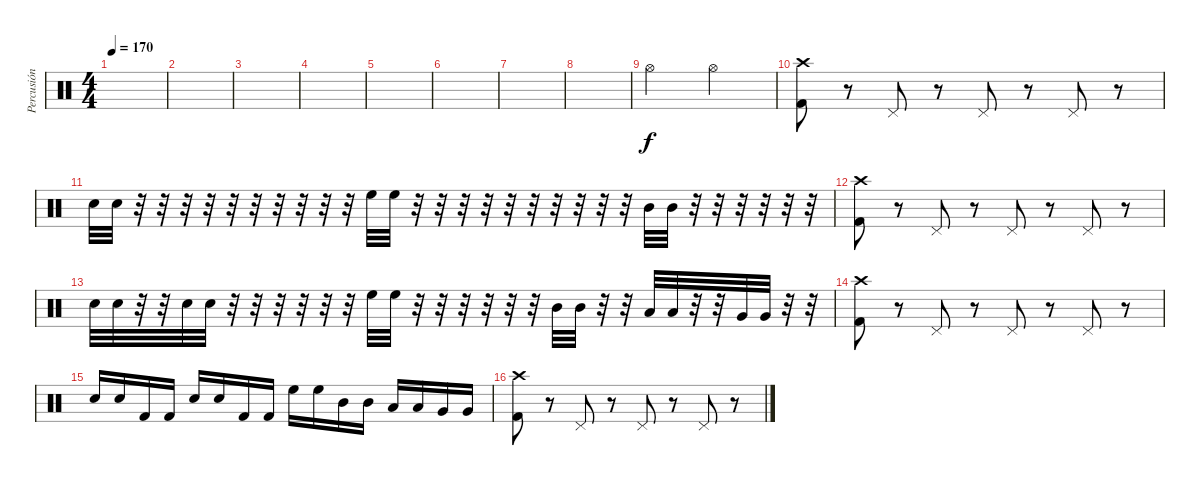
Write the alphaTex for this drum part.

\track ("Percusión" "Percusión") {instrument percussion}
\staff {score}
\articulation defaults
\ts (4 4)
\tempo 170
\clef neutral
\ks c
|
|
|
|
|
|
|
|
"Hi-Hat (open)".2 "Hi-Hat (open)".2 |
("Crash high (hit)" "Kick (hit) 2").8 r.8 "Pedal Hi-Hat (hit)".8 r.8 "Pedal Hi-Hat (hit)".8 r.8 "Pedal Hi-Hat (hit)".8 r.8 |
"Electric Snare (hit)".32 "Electric Snare (hit)".32 r.32 r.32 r.32 r.32 r.32 r.32 r.32 r.32 r.32 r.32 "High Floor Tom (hit)".32 "High Floor Tom (hit)".32 r.32 r.32 r.32 r.32 r.32 r.32 r.32 r.32 r.32 r.32 "Mid Tom (hit)".32 "Mid Tom (hit)".32 r.32 r.32 r.32 r.32 r.32 r.32 |
("Crash high (hit)" "Kick (hit) 2").8 r.8 "Pedal Hi-Hat (hit)".8 r.8 "Pedal Hi-Hat (hit)".8 r.8 "Pedal Hi-Hat (hit)".8 r.8 |
"Electric Snare (hit)".32 "Electric Snare (hit)".32 r.32 r.32 "Electric Snare (hit)".32 "Electric Snare (hit)".32 r.32 r.32 r.32 r.32 r.32 r.32 "High Floor Tom (hit)".32 "High Floor Tom (hit)".32 r.32 r.32 r.32 r.32 r.32 r.32 "Mid Tom (hit)".32 "Mid Tom (hit)".32 r.32 r.32 "Low Tom (hit)".32 "Low Tom (hit)".32 r.32 r.32 "Very Low Tom (hit)".32 "Very Low Tom (hit)".32 r.32 r.32 |
("Crash high (hit)" "Kick (hit) 2").8 r.8 "Pedal Hi-Hat (hit)".8 r.8 "Pedal Hi-Hat (hit)".8 r.8 "Pedal Hi-Hat (hit)".8 r.8 |
"Electric Snare (hit)".16 "Electric Snare (hit)".16 "Kick (hit) 2".16 "Kick (hit) 2".16 "Electric Snare (hit)".16 "Electric Snare (hit)".16 "Kick (hit) 2".16 "Kick (hit) 2".16 "High Floor Tom (hit)".16 "High Floor Tom (hit)".16 "Mid Tom (hit)".16 "Mid Tom (hit)".16 "Low Tom (hit)".16 "Low Tom (hit)".16 "Very Low Tom (hit)".16 "Very Low Tom (hit)".16 |
("Crash high (hit)" "Kick (hit) 2").8 r.8 "Pedal Hi-Hat (hit)".8 r.8 "Pedal Hi-Hat (hit)".8 r.8 "Pedal Hi-Hat (hit)".8 r.8
